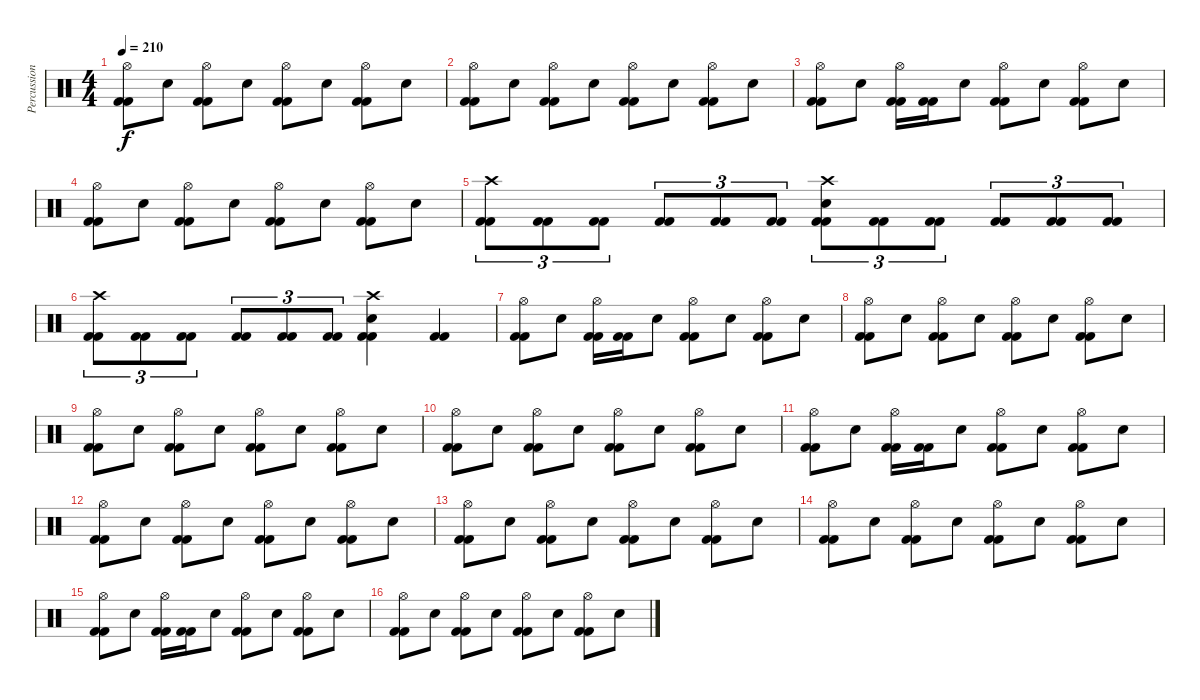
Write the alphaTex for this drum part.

\track ("Percussion" "Percussion") {instrument percussion}
\staff {score}
\articulation defaults
\ts (4 4)
\tempo 210
\clef neutral
\ks c
("Hi-Hat (open)" "Kick (hit) 2" "Kick (hit) 2").8{dy f} "Electric Snare (hit)".8 ("Hi-Hat (open)" "Kick (hit) 2" "Kick (hit) 2").8 "Electric Snare (hit)".8 ("Hi-Hat (open)" "Kick (hit) 2" "Kick (hit) 2").8 "Electric Snare (hit)".8 ("Hi-Hat (open)" "Kick (hit) 2" "Kick (hit) 2").8 "Electric Snare (hit)".8 |
("Hi-Hat (open)" "Kick (hit) 2" "Kick (hit) 2").8 "Electric Snare (hit)".8 ("Hi-Hat (open)" "Kick (hit) 2" "Kick (hit) 2").8 "Electric Snare (hit)".8 ("Hi-Hat (open)" "Kick (hit) 2" "Kick (hit) 2").8 "Electric Snare (hit)".8 ("Hi-Hat (open)" "Kick (hit) 2" "Kick (hit) 2").8 "Electric Snare (hit)".8 |
("Hi-Hat (open)" "Kick (hit) 2" "Kick (hit) 2").8 "Electric Snare (hit)".8 ("Hi-Hat (open)" "Kick (hit) 2" "Kick (hit) 2").16 ("Kick (hit) 2" "Kick (hit) 2").16 "Electric Snare (hit)".8 ("Hi-Hat (open)" "Kick (hit) 2" "Kick (hit) 2").8 "Electric Snare (hit)".8 ("Hi-Hat (open)" "Kick (hit) 2" "Kick (hit) 2").8 "Electric Snare (hit)".8 |
("Hi-Hat (open)" "Kick (hit) 2" "Kick (hit) 2").8 "Electric Snare (hit)".8 ("Hi-Hat (open)" "Kick (hit) 2" "Kick (hit) 2").8 "Electric Snare (hit)".8 ("Hi-Hat (open)" "Kick (hit) 2" "Kick (hit) 2").8 "Electric Snare (hit)".8 ("Hi-Hat (open)" "Kick (hit) 2" "Kick (hit) 2").8 "Electric Snare (hit)".8 |
("Crash high (hit)" "Kick (hit) 2" "Kick (hit) 2").8{tu (3 2)} ("Kick (hit) 2" "Kick (hit) 2").8{tu (3 2)} ("Kick (hit) 2" "Kick (hit) 2").8{tu (3 2)} ("Kick (hit) 2" "Kick (hit) 2").8{tu (3 2)} ("Kick (hit) 2" "Kick (hit) 2").8{tu (3 2)} ("Kick (hit) 2" "Kick (hit) 2").8{tu (3 2)} ("Crash high (hit)" "Electric Snare (hit)" "Kick (hit) 2" "Kick (hit) 2").8{tu (3 2)} ("Kick (hit) 2" "Kick (hit) 2").8{tu (3 2)} ("Kick (hit) 2" "Kick (hit) 2").8{tu (3 2)} ("Kick (hit) 2" "Kick (hit) 2").8{tu (3 2)} ("Kick (hit) 2" "Kick (hit) 2").8{tu (3 2)} ("Kick (hit) 2" "Kick (hit) 2").8{tu (3 2)} |
("Crash high (hit)" "Kick (hit) 2" "Kick (hit) 2").8{tu (3 2)} ("Kick (hit) 2" "Kick (hit) 2").8{tu (3 2)} ("Kick (hit) 2" "Kick (hit) 2").8{tu (3 2)} ("Kick (hit) 2" "Kick (hit) 2").8{tu (3 2)} ("Kick (hit) 2" "Kick (hit) 2").8{tu (3 2)} ("Kick (hit) 2" "Kick (hit) 2").8{tu (3 2)} ("Crash high (hit)" "Electric Snare (hit)" "Kick (hit) 2" "Kick (hit) 2").4 ("Kick (hit) 2" "Kick (hit) 2").4 |
("Hi-Hat (open)" "Kick (hit) 2" "Kick (hit) 2").8 "Electric Snare (hit)".8 ("Hi-Hat (open)" "Kick (hit) 2" "Kick (hit) 2").16 ("Kick (hit) 2" "Kick (hit) 2").16 "Electric Snare (hit)".8 ("Hi-Hat (open)" "Kick (hit) 2" "Kick (hit) 2").8 "Electric Snare (hit)".8 ("Hi-Hat (open)" "Kick (hit) 2" "Kick (hit) 2").8 "Electric Snare (hit)".8 |
("Hi-Hat (open)" "Kick (hit) 2" "Kick (hit) 2").8 "Electric Snare (hit)".8 ("Hi-Hat (open)" "Kick (hit) 2" "Kick (hit) 2").8 "Electric Snare (hit)".8 ("Hi-Hat (open)" "Kick (hit) 2" "Kick (hit) 2").8 "Electric Snare (hit)".8 ("Hi-Hat (open)" "Kick (hit) 2" "Kick (hit) 2").8 "Electric Snare (hit)".8 |
("Hi-Hat (open)" "Kick (hit) 2" "Kick (hit) 2").8 "Electric Snare (hit)".8 ("Hi-Hat (open)" "Kick (hit) 2" "Kick (hit) 2").8 "Electric Snare (hit)".8 ("Hi-Hat (open)" "Kick (hit) 2" "Kick (hit) 2").8 "Electric Snare (hit)".8 ("Hi-Hat (open)" "Kick (hit) 2" "Kick (hit) 2").8 "Electric Snare (hit)".8 |
("Hi-Hat (open)" "Kick (hit) 2" "Kick (hit) 2").8 "Electric Snare (hit)".8 ("Hi-Hat (open)" "Kick (hit) 2" "Kick (hit) 2").8 "Electric Snare (hit)".8 ("Hi-Hat (open)" "Kick (hit) 2" "Kick (hit) 2").8 "Electric Snare (hit)".8 ("Hi-Hat (open)" "Kick (hit) 2" "Kick (hit) 2").8 "Electric Snare (hit)".8 |
("Hi-Hat (open)" "Kick (hit) 2" "Kick (hit) 2").8 "Electric Snare (hit)".8 ("Hi-Hat (open)" "Kick (hit) 2" "Kick (hit) 2").16 ("Kick (hit) 2" "Kick (hit) 2").16 "Electric Snare (hit)".8 ("Hi-Hat (open)" "Kick (hit) 2" "Kick (hit) 2").8 "Electric Snare (hit)".8 ("Hi-Hat (open)" "Kick (hit) 2" "Kick (hit) 2").8 "Electric Snare (hit)".8 |
("Hi-Hat (open)" "Kick (hit) 2" "Kick (hit) 2").8 "Electric Snare (hit)".8 ("Hi-Hat (open)" "Kick (hit) 2" "Kick (hit) 2").8 "Electric Snare (hit)".8 ("Hi-Hat (open)" "Kick (hit) 2" "Kick (hit) 2").8 "Electric Snare (hit)".8 ("Hi-Hat (open)" "Kick (hit) 2" "Kick (hit) 2").8 "Electric Snare (hit)".8 |
("Hi-Hat (open)" "Kick (hit) 2" "Kick (hit) 2").8 "Electric Snare (hit)".8 ("Hi-Hat (open)" "Kick (hit) 2" "Kick (hit) 2").8 "Electric Snare (hit)".8 ("Hi-Hat (open)" "Kick (hit) 2" "Kick (hit) 2").8 "Electric Snare (hit)".8 ("Hi-Hat (open)" "Kick (hit) 2" "Kick (hit) 2").8 "Electric Snare (hit)".8 |
("Hi-Hat (open)" "Kick (hit) 2" "Kick (hit) 2").8 "Electric Snare (hit)".8 ("Hi-Hat (open)" "Kick (hit) 2" "Kick (hit) 2").8 "Electric Snare (hit)".8 ("Hi-Hat (open)" "Kick (hit) 2" "Kick (hit) 2").8 "Electric Snare (hit)".8 ("Hi-Hat (open)" "Kick (hit) 2" "Kick (hit) 2").8 "Electric Snare (hit)".8 |
("Hi-Hat (open)" "Kick (hit) 2" "Kick (hit) 2").8 "Electric Snare (hit)".8 ("Hi-Hat (open)" "Kick (hit) 2" "Kick (hit) 2").16 ("Kick (hit) 2" "Kick (hit) 2").16 "Electric Snare (hit)".8 ("Hi-Hat (open)" "Kick (hit) 2" "Kick (hit) 2").8 "Electric Snare (hit)".8 ("Hi-Hat (open)" "Kick (hit) 2" "Kick (hit) 2").8 "Electric Snare (hit)".8 |
("Hi-Hat (open)" "Kick (hit) 2" "Kick (hit) 2").8 "Electric Snare (hit)".8 ("Hi-Hat (open)" "Kick (hit) 2" "Kick (hit) 2").8 "Electric Snare (hit)".8 ("Hi-Hat (open)" "Kick (hit) 2" "Kick (hit) 2").8 "Electric Snare (hit)".8 ("Hi-Hat (open)" "Kick (hit) 2" "Kick (hit) 2").8 "Electric Snare (hit)".8
